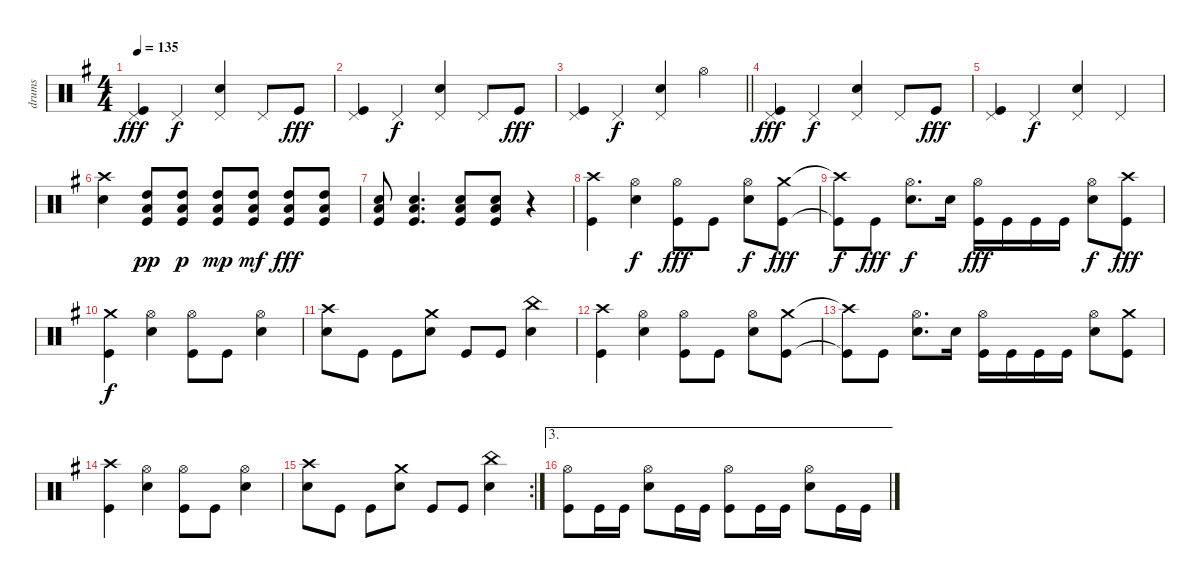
\track ("drums" "drums") {instrument percussion}
\staff {score}
\articulation defaults
\ts (4 4)
\tempo 135
\clef neutral
\ks eminor
("Pedal Hi-Hat (hit)" "Kick (hit)").4{dy fff} "Pedal Hi-Hat (hit)".4{dy f} ("Pedal Hi-Hat (hit)" "Snare (hit) 2").4 "Pedal Hi-Hat (hit)".8 "Kick (hit)".8{dy fff} |
("Pedal Hi-Hat (hit)" "Kick (hit)").4 "Pedal Hi-Hat (hit)".4{dy f} ("Pedal Hi-Hat (hit)" "Snare (hit) 2").4 "Pedal Hi-Hat (hit)".8 "Kick (hit)".8{dy fff} |
\barLineRight lightlight
("Pedal Hi-Hat (hit)" "Kick (hit)").4 "Pedal Hi-Hat (hit)".4{dy f} ("Pedal Hi-Hat (hit)" "Snare (hit) 2").4 "Hi-Hat (open)".4 |
("Pedal Hi-Hat (hit)" "Kick (hit)").4{dy fff} "Pedal Hi-Hat (hit)".4{dy f} ("Pedal Hi-Hat (hit)" "Snare (hit) 2").4 "Pedal Hi-Hat (hit)".8 "Kick (hit)".8{dy fff} |
("Pedal Hi-Hat (hit)" "Kick (hit)").4 "Pedal Hi-Hat (hit)".4{dy f} ("Pedal Hi-Hat (hit)" "Snare (hit) 2").4 "Pedal Hi-Hat (hit)".4 |
("Crash high (hit)" "Snare (hit) 2").4 ("High Tom (hit)" "Low Floor Tom (hit)" "Kick (hit)").8{dy pp} ("High Tom (hit)" "Low Floor Tom (hit)" "Kick (hit)").8{dy p} ("High Tom (hit)" "Low Floor Tom (hit)" "Kick (hit)").8{dy mp} ("High Tom (hit)" "Low Floor Tom (hit)" "Kick (hit)").8{dy mf} ("High Tom (hit)" "Low Floor Tom (hit)" "Kick (hit)").8{dy fff} ("High Tom (hit)" "Low Floor Tom (hit)" "Kick (hit)").8 |
("Low Floor Tom (hit)" "Snare (hit) 2" "Kick (hit)").8 ("Low Floor Tom (hit)" "Snare (hit) 2" "Kick (hit)").4{d} ("Low Floor Tom (hit)" "Snare (hit) 2" "Kick (hit)").8 ("Low Floor Tom (hit)" "Snare (hit) 2" "Kick (hit)").8 r.4 |
("Crash high (hit)" "Kick (hit)").4 ("Hi-Hat (open)" "Snare (hit) 2").4{dy f} ("Hi-Hat (open)" "Kick (hit)").8{dy fff} "Kick (hit)".8 ("Hi-Hat (open)" "Snare (hit) 2").8{dy f} ("Crash medium (hit)" "Kick (hit)").8{dy fff} |
("Crash high (hit)"{t} "Kick (hit)"{t}).8{dy f} "Kick (hit)".8{dy fff} ("Hi-Hat (open)" "Snare (hit) 2").8{d dy f} "Snare (hit) 2".16 ("Hi-Hat (open)" "Kick (hit)").16{dy fff} "Kick (hit)".16 "Kick (hit)".16 "Kick (hit)".16 ("Hi-Hat (open)" "Snare (hit) 2").8{dy f} ("Crash high (hit)" "Kick (hit)").8{dy fff} |
("Crash medium (hit)" "Kick (hit)").4{dy f} ("Hi-Hat (open)" "Snare (hit) 2").4 ("Hi-Hat (open)" "Kick (hit)").8 "Kick (hit)".8 ("Hi-Hat (open)" "Snare (hit) 2").4 |
("Crash high (hit)" "Snare (hit) 2").8 "Kick (hit)".8 "Kick (hit)".8 ("Crash medium (hit)" "Snare (hit) 2").8 "Kick (hit)".8 "Kick (hit)".8 ("China (hit)" "Snare (hit) 2").4 |
("Crash high (hit)" "Kick (hit)").4 ("Hi-Hat (open)" "Snare (hit) 2").4 ("Hi-Hat (open)" "Kick (hit)").8 "Kick (hit)".8 ("Hi-Hat (open)" "Snare (hit) 2").8 ("Crash medium (hit)" "Kick (hit)").8 |
("Crash high (hit)"{t} "Kick (hit)"{t}).8 "Kick (hit)".8 ("Hi-Hat (open)" "Snare (hit) 2").8{d} "Snare (hit) 2".16 ("Hi-Hat (open)" "Kick (hit)").16 "Kick (hit)".16 "Kick (hit)".16 "Kick (hit)".16 ("Hi-Hat (open)" "Snare (hit) 2").8 ("Crash medium (hit)" "Kick (hit)").8 |
("Crash high (hit)" "Kick (hit)").4 ("Hi-Hat (open)" "Snare (hit) 2").4 ("Hi-Hat (open)" "Kick (hit)").8 "Kick (hit)".8 ("Hi-Hat (open)" "Snare (hit) 2").4 |
\rc 2
("Crash high (hit)" "Snare (hit) 2").8 "Kick (hit)".8 "Kick (hit)".8 ("Crash medium (hit)" "Snare (hit) 2").8 "Kick (hit)".8 "Kick (hit)".8 ("China (hit)" "Snare (hit) 2").4 |
\ae 3
("Hi-Hat (open)" "Kick (hit)").8 "Kick (hit)".16 "Kick (hit)".16 ("Hi-Hat (open)" "Snare (hit) 2").8 "Kick (hit)".16 "Kick (hit)".16 ("Hi-Hat (open)" "Kick (hit)").8 "Kick (hit)".16 "Kick (hit)".16 ("Hi-Hat (open)" "Snare (hit) 2").8 "Kick (hit)".16 "Kick (hit)".16
